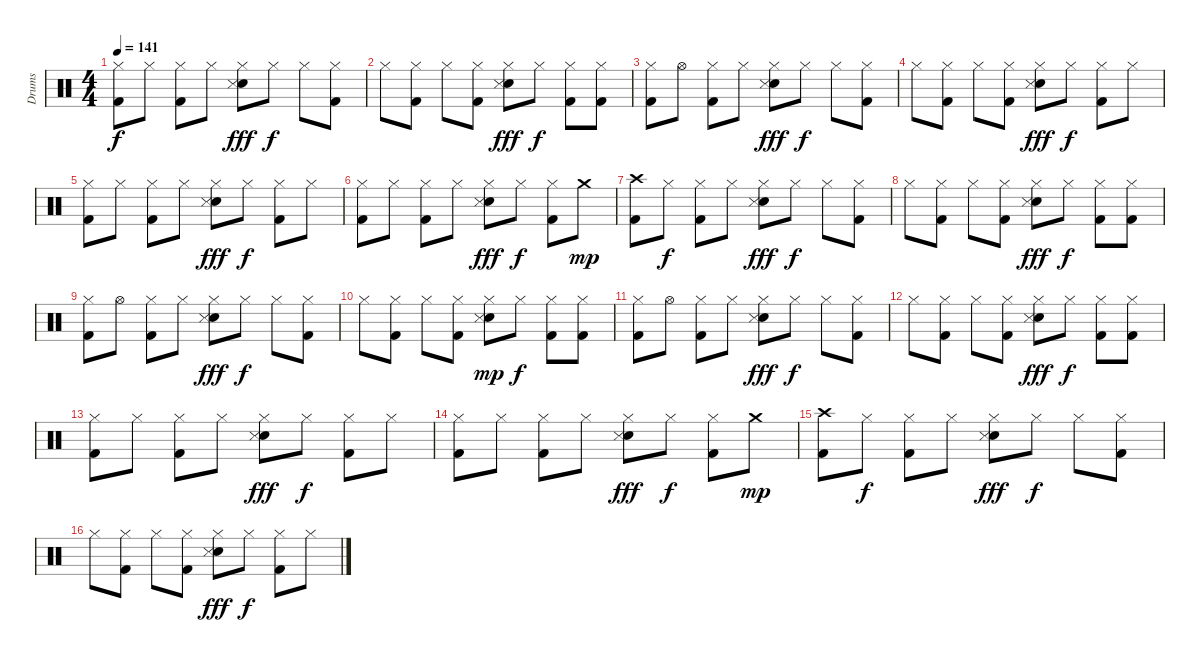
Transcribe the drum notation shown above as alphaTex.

\track ("Drums" "Drums") {instrument percussion}
\staff {score}
\articulation defaults
\ts (4 4)
\tempo 141
\clef neutral
\ks c
("Hi-Hat (closed)" "Kick (hit) 2").8{dy f} "Hi-Hat (closed)".8 ("Hi-Hat (closed)" "Kick (hit) 2").8 "Hi-Hat (closed)".8 ("Hi-Hat (closed)" "Electric Snare (hit)" "Metronome (hit)").8{dy fff} "Hi-Hat (closed)".8{dy f} "Hi-Hat (closed)".8 ("Hi-Hat (closed)" "Kick (hit) 2").8 |
"Hi-Hat (closed)".8 ("Hi-Hat (closed)" "Kick (hit) 2").8 "Hi-Hat (closed)".8 ("Hi-Hat (closed)" "Kick (hit) 2").8 ("Hi-Hat (closed)" "Electric Snare (hit)" "Metronome (hit)").8{dy fff} "Hi-Hat (closed)".8{dy f} ("Hi-Hat (closed)" "Kick (hit) 2").8 ("Hi-Hat (closed)" "Kick (hit) 2").8 |
("Hi-Hat (closed)" "Kick (hit) 2").8 "Hi-Hat (open)".8 ("Hi-Hat (closed)" "Kick (hit) 2").8 "Hi-Hat (closed)".8 ("Hi-Hat (closed)" "Electric Snare (hit)" "Metronome (hit)").8{dy fff} "Hi-Hat (closed)".8{dy f} "Hi-Hat (closed)".8 ("Hi-Hat (closed)" "Kick (hit) 2").8 |
"Hi-Hat (closed)".8 ("Hi-Hat (closed)" "Kick (hit) 2").8 "Hi-Hat (closed)".8 ("Hi-Hat (closed)" "Kick (hit) 2").8 ("Hi-Hat (closed)" "Electric Snare (hit)" "Metronome (hit)").8{dy fff} "Hi-Hat (closed)".8{dy f} ("Hi-Hat (closed)" "Kick (hit) 2").8 "Hi-Hat (closed)".8 |
("Hi-Hat (closed)" "Kick (hit) 2").8 "Hi-Hat (closed)".8 ("Hi-Hat (closed)" "Kick (hit) 2").8 "Hi-Hat (closed)".8 ("Hi-Hat (closed)" "Electric Snare (hit)" "Metronome (hit)").8{dy fff} "Hi-Hat (closed)".8{dy f} ("Hi-Hat (closed)" "Kick (hit) 2").8 "Hi-Hat (closed)".8 |
("Hi-Hat (closed)" "Kick (hit) 2").8 "Hi-Hat (closed)".8 ("Hi-Hat (closed)" "Kick (hit) 2").8 "Hi-Hat (closed)".8 ("Hi-Hat (closed)" "Electric Snare (hit)" "Metronome (hit)").8{dy fff} "Hi-Hat (closed)".8{dy f} ("Hi-Hat (closed)" "Kick (hit) 2").8 "Crash medium (hit)".8{dy mp} |
("Crash high (hit)" "Kick (hit) 2").8 "Hi-Hat (closed)".8{dy f} ("Hi-Hat (closed)" "Kick (hit) 2").8 "Hi-Hat (closed)".8 ("Hi-Hat (closed)" "Electric Snare (hit)" "Metronome (hit)").8{dy fff} "Hi-Hat (closed)".8{dy f} "Hi-Hat (closed)".8 ("Hi-Hat (closed)" "Kick (hit) 2").8 |
"Hi-Hat (closed)".8 ("Hi-Hat (closed)" "Kick (hit) 2").8 "Hi-Hat (closed)".8 ("Hi-Hat (closed)" "Kick (hit) 2").8 ("Hi-Hat (closed)" "Electric Snare (hit)" "Metronome (hit)").8{dy fff} "Hi-Hat (closed)".8{dy f} ("Hi-Hat (closed)" "Kick (hit) 2").8 ("Hi-Hat (closed)" "Kick (hit) 2").8 |
("Hi-Hat (closed)" "Kick (hit) 2").8 "Hi-Hat (open)".8 ("Hi-Hat (closed)" "Kick (hit) 2").8 "Hi-Hat (closed)".8 ("Hi-Hat (closed)" "Electric Snare (hit)" "Metronome (hit)").8{dy fff} "Hi-Hat (closed)".8{dy f} "Hi-Hat (closed)".8 ("Hi-Hat (closed)" "Kick (hit) 2").8 |
"Hi-Hat (closed)".8 ("Hi-Hat (closed)" "Kick (hit) 2").8 "Hi-Hat (closed)".8 ("Hi-Hat (closed)" "Kick (hit) 2").8 ("Hi-Hat (closed)" "Electric Snare (hit)" "Metronome (hit)").8{dy mp} "Hi-Hat (closed)".8{dy f} ("Hi-Hat (closed)" "Kick (hit) 2").8 ("Hi-Hat (closed)" "Kick (hit) 2").8 |
("Hi-Hat (closed)" "Kick (hit) 2").8 "Hi-Hat (open)".8 ("Hi-Hat (closed)" "Kick (hit) 2").8 "Hi-Hat (closed)".8 ("Hi-Hat (closed)" "Electric Snare (hit)" "Metronome (hit)").8{dy fff} "Hi-Hat (closed)".8{dy f} "Hi-Hat (closed)".8 ("Hi-Hat (closed)" "Kick (hit) 2").8 |
"Hi-Hat (closed)".8 ("Hi-Hat (closed)" "Kick (hit) 2").8 "Hi-Hat (closed)".8 ("Hi-Hat (closed)" "Kick (hit) 2").8 ("Hi-Hat (closed)" "Electric Snare (hit)" "Metronome (hit)").8{dy fff} "Hi-Hat (closed)".8{dy f} ("Hi-Hat (closed)" "Kick (hit) 2").8 ("Hi-Hat (closed)" "Kick (hit) 2").8 |
("Hi-Hat (closed)" "Kick (hit) 2").8 "Hi-Hat (closed)".8 ("Hi-Hat (closed)" "Kick (hit) 2").8 "Hi-Hat (closed)".8 ("Hi-Hat (closed)" "Electric Snare (hit)" "Metronome (hit)").8{dy fff} "Hi-Hat (closed)".8{dy f} ("Hi-Hat (closed)" "Kick (hit) 2").8 "Hi-Hat (closed)".8 |
("Hi-Hat (closed)" "Kick (hit) 2").8 "Hi-Hat (closed)".8 ("Hi-Hat (closed)" "Kick (hit) 2").8 "Hi-Hat (closed)".8 ("Hi-Hat (closed)" "Electric Snare (hit)" "Metronome (hit)").8{dy fff} "Hi-Hat (closed)".8{dy f} ("Hi-Hat (closed)" "Kick (hit) 2").8 "Crash medium (hit)".8{dy mp} |
("Crash high (hit)" "Kick (hit) 2").8 "Hi-Hat (closed)".8{dy f} ("Hi-Hat (closed)" "Kick (hit) 2").8 "Hi-Hat (closed)".8 ("Hi-Hat (closed)" "Electric Snare (hit)" "Metronome (hit)").8{dy fff} "Hi-Hat (closed)".8{dy f} "Hi-Hat (closed)".8 ("Hi-Hat (closed)" "Kick (hit) 2").8 |
"Hi-Hat (closed)".8 ("Hi-Hat (closed)" "Kick (hit) 2").8 "Hi-Hat (closed)".8 ("Hi-Hat (closed)" "Kick (hit) 2").8 ("Hi-Hat (closed)" "Electric Snare (hit)" "Metronome (hit)").8{dy fff} "Hi-Hat (closed)".8{dy f} ("Hi-Hat (closed)" "Kick (hit) 2").8 "Hi-Hat (closed)".8
